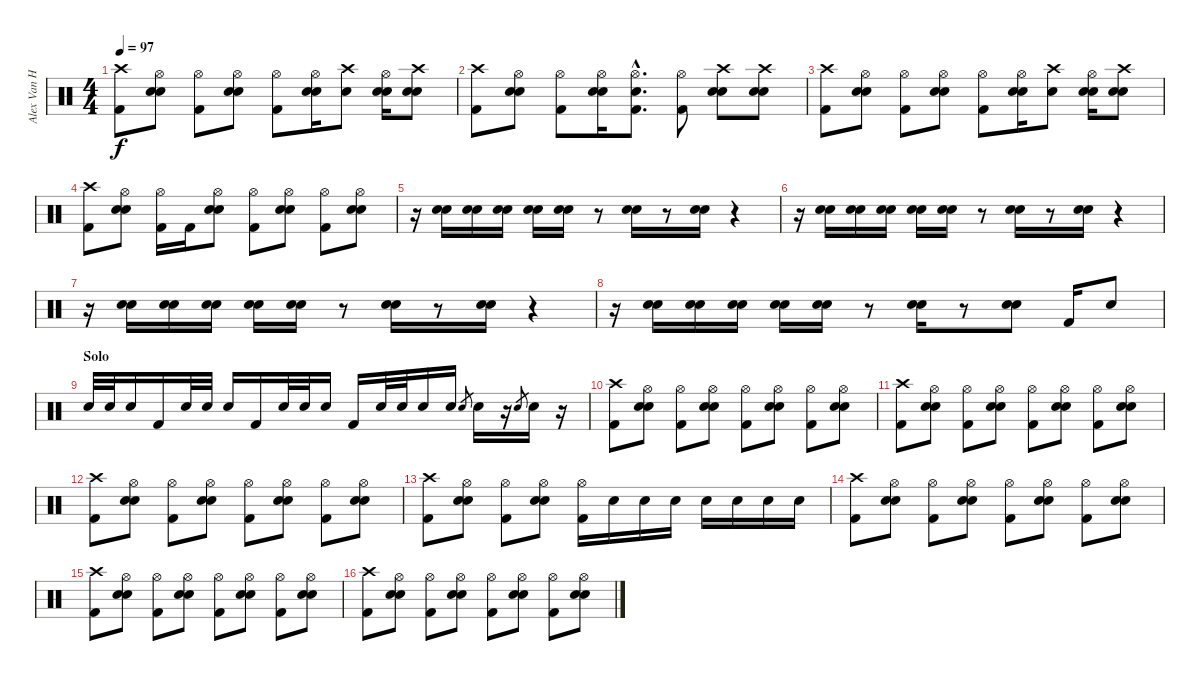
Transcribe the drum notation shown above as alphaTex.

\track ("Alex Van Halen" "Alex Van H") {instrument percussion}
\staff {score}
\articulation defaults
\ts (4 4)
\tempo 97
\clef neutral
\ks c
("Crash high (hit)" "Kick (hit) 2").8{dy f} ("Hi-Hat (open)" "Snare (hit) 2" "Electric Snare (hit)").8 ("Hi-Hat (open)" "Kick (hit) 2").8 ("Hi-Hat (open)" "Snare (hit) 2" "Electric Snare (hit)").8 ("Hi-Hat (open)" "Kick (hit) 2").8 ("Hi-Hat (open)" "Snare (hit) 2" "Electric Snare (hit)").16 ("Crash high (hit)" "Electric Snare (hit)").8 ("Hi-Hat (open)" "Snare (hit) 2" "Electric Snare (hit)").16 ("Crash high (hit)" "Snare (hit) 2" "Electric Snare (hit)").8 |
("Crash high (hit)" "Kick (hit) 2").8 ("Hi-Hat (open)" "Snare (hit) 2" "Electric Snare (hit)").8 ("Hi-Hat (open)" "Kick (hit) 2").8 ("Hi-Hat (open)" "Snare (hit) 2" "Electric Snare (hit)").16 ("Hi-Hat (open)"{hac} "Electric Snare (hit)"{hac} "Kick (hit) 2"{hac}).8{d} ("Hi-Hat (open)" "Kick (hit) 2").8 ("Crash high (hit)" "Snare (hit) 2" "Electric Snare (hit)").8 ("Crash high (hit)" "Snare (hit) 2" "Electric Snare (hit)").8 |
("Crash high (hit)" "Kick (hit) 2").8 ("Hi-Hat (open)" "Snare (hit) 2" "Electric Snare (hit)").8 ("Hi-Hat (open)" "Kick (hit) 2").8 ("Hi-Hat (open)" "Snare (hit) 2" "Electric Snare (hit)").8 ("Hi-Hat (open)" "Kick (hit) 2").8 ("Hi-Hat (open)" "Snare (hit) 2" "Electric Snare (hit)").16 ("Crash high (hit)" "Electric Snare (hit)").8 ("Hi-Hat (open)" "Snare (hit) 2" "Electric Snare (hit)").16 ("Crash high (hit)" "Snare (hit) 2" "Electric Snare (hit)").8 |
("Crash high (hit)" "Kick (hit) 2").8 ("Hi-Hat (open)" "Snare (hit) 2" "Electric Snare (hit)").8 ("Hi-Hat (open)" "Kick (hit) 2").16 "Kick (hit) 2".16 ("Hi-Hat (open)" "Electric Snare (hit)" "Snare (hit) 2").8 ("Hi-Hat (open)" "Kick (hit) 2").8 ("Hi-Hat (open)" "Snare (hit) 2" "Electric Snare (hit)").8 ("Hi-Hat (open)" "Kick (hit) 2").8 ("Hi-Hat (open)" "Snare (hit) 2" "Electric Snare (hit)").8 |
r.16 ("Snare (hit) 2" "Electric Snare (hit)").16 ("Snare (hit) 2" "Electric Snare (hit)").16 ("Snare (hit) 2" "Electric Snare (hit)").16 ("Snare (hit) 2" "Electric Snare (hit)").16 ("Snare (hit) 2" "Electric Snare (hit)").16 r.8 ("Snare (hit) 2" "Electric Snare (hit)").16 r.8 ("Snare (hit) 2" "Electric Snare (hit)").16 r.4 |
r.16 ("Snare (hit) 2" "Electric Snare (hit)").16 ("Snare (hit) 2" "Electric Snare (hit)").16 ("Snare (hit) 2" "Electric Snare (hit)").16 ("Snare (hit) 2" "Electric Snare (hit)").16 ("Snare (hit) 2" "Electric Snare (hit)").16 r.8 ("Snare (hit) 2" "Electric Snare (hit)").16 r.8 ("Snare (hit) 2" "Electric Snare (hit)").16 r.4 |
r.16 ("Snare (hit) 2" "Electric Snare (hit)").16 ("Snare (hit) 2" "Electric Snare (hit)").16 ("Snare (hit) 2" "Electric Snare (hit)").16 ("Snare (hit) 2" "Electric Snare (hit)").16 ("Snare (hit) 2" "Electric Snare (hit)").16 r.8 ("Snare (hit) 2" "Electric Snare (hit)").16 r.8 ("Snare (hit) 2" "Electric Snare (hit)").16 r.4 |
r.16 ("Snare (hit) 2" "Electric Snare (hit)").16 ("Snare (hit) 2" "Electric Snare (hit)").16 ("Snare (hit) 2" "Electric Snare (hit)").16 ("Snare (hit) 2" "Electric Snare (hit)").16 ("Snare (hit) 2" "Electric Snare (hit)").16 r.8 ("Snare (hit) 2" "Electric Snare (hit)").16 r.8 ("Snare (hit) 2" "Electric Snare (hit)").8 "Kick (hit) 2".16 "Snare (hit) 2".8 |
\section ("" "Solo")
"Electric Snare (hit)".32 "Electric Snare (hit)".32 "Electric Snare (hit)".16 "Kick (hit) 2".16 "Electric Snare (hit)".32 "Electric Snare (hit)".32 "Electric Snare (hit)".16 "Kick (hit) 2".16 "Electric Snare (hit)".32 "Electric Snare (hit)".32 "Electric Snare (hit)".16 "Kick (hit) 2".16 "Electric Snare (hit)".32 "Electric Snare (hit)".32 "Electric Snare (hit)".16 "Electric Snare (hit)".16 "Snare (hit) 2".8{gr} "Electric Snare (hit)".16 r.16 "Snare (hit) 2".8{gr} "Electric Snare (hit)".16 r.16 |
("Crash high (hit)" "Kick (hit) 2").8 ("Hi-Hat (open)" "Snare (hit) 2" "Electric Snare (hit)").8 ("Hi-Hat (open)" "Kick (hit) 2").8 ("Hi-Hat (open)" "Snare (hit) 2" "Electric Snare (hit)").8 ("Hi-Hat (open)" "Kick (hit) 2").8 ("Hi-Hat (open)" "Snare (hit) 2" "Electric Snare (hit)").8 ("Hi-Hat (open)" "Kick (hit) 2").8 ("Hi-Hat (open)" "Snare (hit) 2" "Electric Snare (hit)").8 |
("Crash high (hit)" "Kick (hit) 2").8 ("Hi-Hat (open)" "Snare (hit) 2" "Electric Snare (hit)").8 ("Hi-Hat (open)" "Kick (hit) 2").8 ("Hi-Hat (open)" "Snare (hit) 2" "Electric Snare (hit)").8 ("Hi-Hat (open)" "Kick (hit) 2").8 ("Hi-Hat (open)" "Snare (hit) 2" "Electric Snare (hit)").8 ("Hi-Hat (open)" "Kick (hit) 2").8 ("Hi-Hat (open)" "Snare (hit) 2" "Electric Snare (hit)").8 |
("Crash high (hit)" "Kick (hit) 2").8 ("Hi-Hat (open)" "Snare (hit) 2" "Electric Snare (hit)").8 ("Hi-Hat (open)" "Kick (hit) 2").8 ("Hi-Hat (open)" "Snare (hit) 2" "Electric Snare (hit)").8 ("Hi-Hat (open)" "Kick (hit) 2").8 ("Hi-Hat (open)" "Snare (hit) 2" "Electric Snare (hit)").8 ("Hi-Hat (open)" "Kick (hit) 2").8 ("Hi-Hat (open)" "Snare (hit) 2" "Electric Snare (hit)").8 |
("Crash high (hit)" "Kick (hit) 2").8 ("Hi-Hat (open)" "Snare (hit) 2" "Electric Snare (hit)").8 ("Hi-Hat (open)" "Kick (hit) 2").8 ("Hi-Hat (open)" "Snare (hit) 2" "Electric Snare (hit)").8 ("Hi-Hat (open)" "Kick (hit) 2").16 "Snare (hit) 2".16 "Electric Snare (hit)".16 "Electric Snare (hit)".16 "Electric Snare (hit)".16 "Electric Snare (hit)".16 "Electric Snare (hit)".16 "Electric Snare (hit)".16 |
("Crash high (hit)" "Kick (hit) 2").8 ("Hi-Hat (open)" "Snare (hit) 2" "Electric Snare (hit)").8 ("Hi-Hat (open)" "Kick (hit) 2").8 ("Hi-Hat (open)" "Snare (hit) 2" "Electric Snare (hit)").8 ("Hi-Hat (open)" "Kick (hit) 2").8 ("Hi-Hat (open)" "Snare (hit) 2" "Electric Snare (hit)").8 ("Hi-Hat (open)" "Kick (hit) 2").8 ("Hi-Hat (open)" "Snare (hit) 2" "Electric Snare (hit)").8 |
("Crash high (hit)" "Kick (hit) 2").8 ("Hi-Hat (open)" "Snare (hit) 2" "Electric Snare (hit)").8 ("Hi-Hat (open)" "Kick (hit) 2").8 ("Hi-Hat (open)" "Snare (hit) 2" "Electric Snare (hit)").8 ("Hi-Hat (open)" "Kick (hit) 2").8 ("Hi-Hat (open)" "Snare (hit) 2" "Electric Snare (hit)").8 ("Hi-Hat (open)" "Kick (hit) 2").8 ("Hi-Hat (open)" "Snare (hit) 2" "Electric Snare (hit)").8 |
("Crash high (hit)" "Kick (hit) 2").8 ("Hi-Hat (open)" "Snare (hit) 2" "Electric Snare (hit)").8 ("Hi-Hat (open)" "Kick (hit) 2").8 ("Hi-Hat (open)" "Snare (hit) 2" "Electric Snare (hit)").8 ("Hi-Hat (open)" "Kick (hit) 2").8 ("Hi-Hat (open)" "Snare (hit) 2" "Electric Snare (hit)").8 ("Hi-Hat (open)" "Kick (hit) 2").8 ("Hi-Hat (open)" "Snare (hit) 2" "Electric Snare (hit)").8
